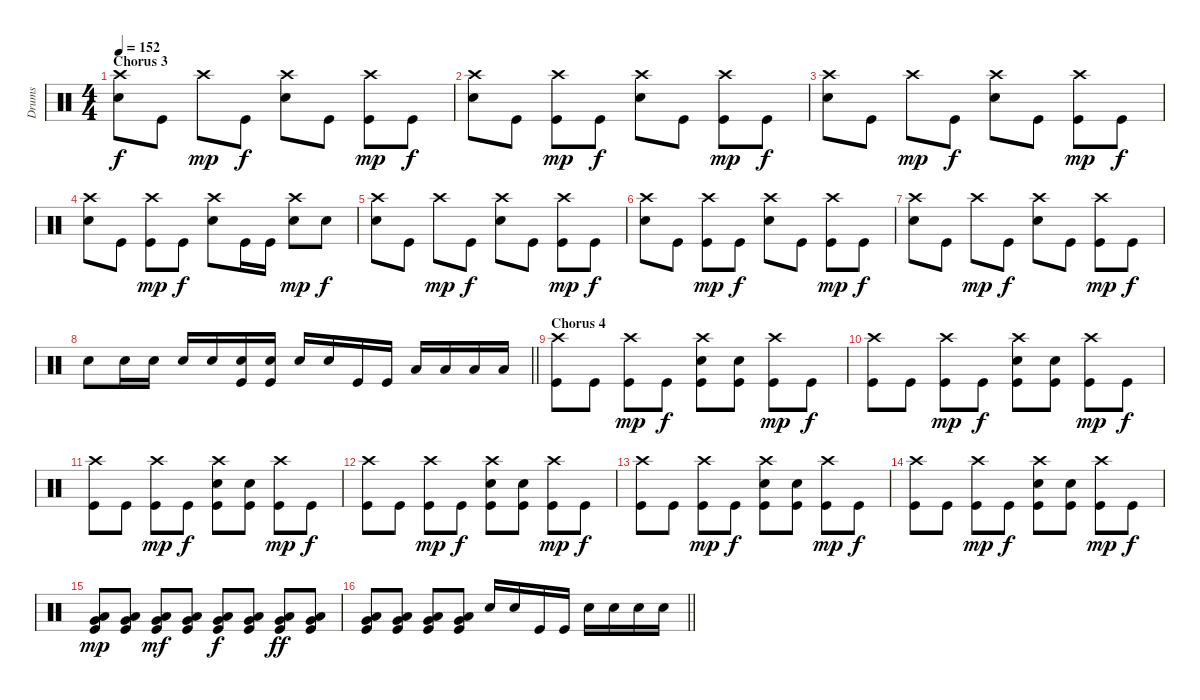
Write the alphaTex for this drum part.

\track ("Drums" "Drums") {instrument percussion}
\staff {score}
\articulation defaults
\ts (4 4)
\section ("" "Chorus 3")
\tempo 152
\clef neutral
\ks c
("Crash high (hit)" "Snare (hit) 2").8{dy f} "Kick (hit)".8 "Crash high (hit)".8{dy mp} "Kick (hit)".8{dy f} ("Snare (hit) 2" "Crash high (hit)").8 "Kick (hit)".8 ("Kick (hit)" "Crash high (hit)").8{dy mp} "Kick (hit)".8{dy f} |
("Snare (hit) 2" "Crash high (hit)").8 "Kick (hit)".8 ("Kick (hit)" "Crash high (hit)").8{dy mp} "Kick (hit)".8{dy f} ("Snare (hit) 2" "Crash high (hit)").8 "Kick (hit)".8 ("Kick (hit)" "Crash high (hit)").8{dy mp} "Kick (hit)".8{dy f} |
("Crash high (hit)" "Snare (hit) 2").8 "Kick (hit)".8 "Crash high (hit)".8{dy mp} "Kick (hit)".8{dy f} ("Snare (hit) 2" "Crash high (hit)").8 "Kick (hit)".8 ("Kick (hit)" "Crash high (hit)").8{dy mp} "Kick (hit)".8{dy f} |
("Snare (hit) 2" "Crash high (hit)").8 "Kick (hit)".8 ("Kick (hit)" "Crash high (hit)").8{dy mp} "Kick (hit)".8{dy f} ("Snare (hit) 2" "Crash high (hit)").8 "Kick (hit)".16 "Kick (hit)".16 ("Crash high (hit)" "Snare (hit) 2").8{dy mp} "Snare (hit) 2".8{dy f} |
("Crash high (hit)" "Snare (hit) 2").8 "Kick (hit)".8 "Crash high (hit)".8{dy mp} "Kick (hit)".8{dy f} ("Snare (hit) 2" "Crash high (hit)").8 "Kick (hit)".8 ("Kick (hit)" "Crash high (hit)").8{dy mp} "Kick (hit)".8{dy f} |
("Snare (hit) 2" "Crash high (hit)").8 "Kick (hit)".8 ("Kick (hit)" "Crash high (hit)").8{dy mp} "Kick (hit)".8{dy f} ("Snare (hit) 2" "Crash high (hit)").8 "Kick (hit)".8 ("Kick (hit)" "Crash high (hit)").8{dy mp} "Kick (hit)".8{dy f} |
("Crash high (hit)" "Snare (hit) 2").8 "Kick (hit)".8 "Crash high (hit)".8{dy mp} "Kick (hit)".8{dy f} ("Snare (hit) 2" "Crash high (hit)").8 "Kick (hit)".8 ("Kick (hit)" "Crash high (hit)").8{dy mp} "Kick (hit)".8{dy f} |
\barLineRight lightlight "Snare (hit) 2".8 "Snare (hit) 2".16 "Snare (hit) 2".16 "Snare (hit) 2".16 "Snare (hit) 2".16
("Snare (hit) 2" "Kick (hit)").16 ("Snare (hit) 2" "Kick (hit)").16 "Snare (hit) 2".16 "Snare (hit) 2".16 "Kick (hit)".16 "Kick (hit)".16 "Low Tom (hit)".16 "Low Tom (hit)".16 "Low Tom (hit)".16 "Low Tom (hit)".16 |
\section ("" "Chorus 4")
("Crash high (hit)" "Kick (hit)").8 "Kick (hit)".8 ("Crash high (hit)" "Kick (hit)").8{dy mp} "Kick (hit)".8{dy f} ("Snare (hit) 2" "Crash high (hit)" "Kick (hit)").8 ("Snare (hit) 2" "Kick (hit)").8 ("Crash high (hit)" "Kick (hit)").8{dy mp} "Kick (hit)".8{dy f} |
("Crash high (hit)" "Kick (hit)").8 "Kick (hit)".8 ("Crash high (hit)" "Kick (hit)").8{dy mp} "Kick (hit)".8{dy f} ("Snare (hit) 2" "Crash high (hit)" "Kick (hit)").8 ("Snare (hit) 2" "Kick (hit)").8 ("Crash high (hit)" "Kick (hit)").8{dy mp} "Kick (hit)".8{dy f} |
("Crash high (hit)" "Kick (hit)").8 "Kick (hit)".8 ("Crash high (hit)" "Kick (hit)").8{dy mp} "Kick (hit)".8{dy f} ("Snare (hit) 2" "Crash high (hit)" "Kick (hit)").8 ("Snare (hit) 2" "Kick (hit)").8 ("Crash high (hit)" "Kick (hit)").8{dy mp} "Kick (hit)".8{dy f} |
("Crash high (hit)" "Kick (hit)").8 "Kick (hit)".8 ("Crash high (hit)" "Kick (hit)").8{dy mp} "Kick (hit)".8{dy f} ("Snare (hit) 2" "Crash high (hit)" "Kick (hit)").8 ("Snare (hit) 2" "Kick (hit)").8 ("Crash high (hit)" "Kick (hit)").8{dy mp} "Kick (hit)".8{dy f} |
("Crash high (hit)" "Kick (hit)").8 "Kick (hit)".8 ("Crash high (hit)" "Kick (hit)").8{dy mp} "Kick (hit)".8{dy f} ("Snare (hit) 2" "Crash high (hit)" "Kick (hit)").8 ("Snare (hit) 2" "Kick (hit)").8 ("Crash high (hit)" "Kick (hit)").8{dy mp} "Kick (hit)".8{dy f} |
("Crash high (hit)" "Kick (hit)").8 "Kick (hit)".8 ("Crash high (hit)" "Kick (hit)").8{dy mp} "Kick (hit)".8{dy f} ("Snare (hit) 2" "Crash high (hit)" "Kick (hit)").8 ("Snare (hit) 2" "Kick (hit)").8 ("Crash high (hit)" "Kick (hit)").8{dy mp} "Kick (hit)".8{dy f} |
("Kick (hit)" "Low Floor Tom (hit)" "Very Low Tom (hit)").8{dy mp} ("Kick (hit)" "Low Floor Tom (hit)" "Very Low Tom (hit)").8 ("Kick (hit)" "Low Floor Tom (hit)" "Very Low Tom (hit)").8{dy mf} ("Kick (hit)" "Low Floor Tom (hit)" "Very Low Tom (hit)").8 ("Kick (hit)" "Low Floor Tom (hit)" "Very Low Tom (hit)").8{dy f} ("Kick (hit)" "Low Floor Tom (hit)" "Very Low Tom (hit)").8 ("Kick (hit)" "Low Floor Tom (hit)" "Very Low Tom (hit)").8{dy ff} ("Kick (hit)" "Low Floor Tom (hit)" "Very Low Tom (hit)").8 |
\barLineRight lightlight
("Kick (hit)" "Low Floor Tom (hit)" "Very Low Tom (hit)").8 ("Kick (hit)" "Low Floor Tom (hit)" "Very Low Tom (hit)").8 ("Kick (hit)" "Low Floor Tom (hit)" "Very Low Tom (hit)").8 ("Kick (hit)" "Low Floor Tom (hit)" "Very Low Tom (hit)").8 "Snare (hit) 2".16 "Snare (hit) 2".16 "Kick (hit)".16 "Kick (hit)".16 "Snare (hit) 2".16 "Snare (hit) 2".16 "Snare (hit) 2".16 "Snare (hit) 2".16
